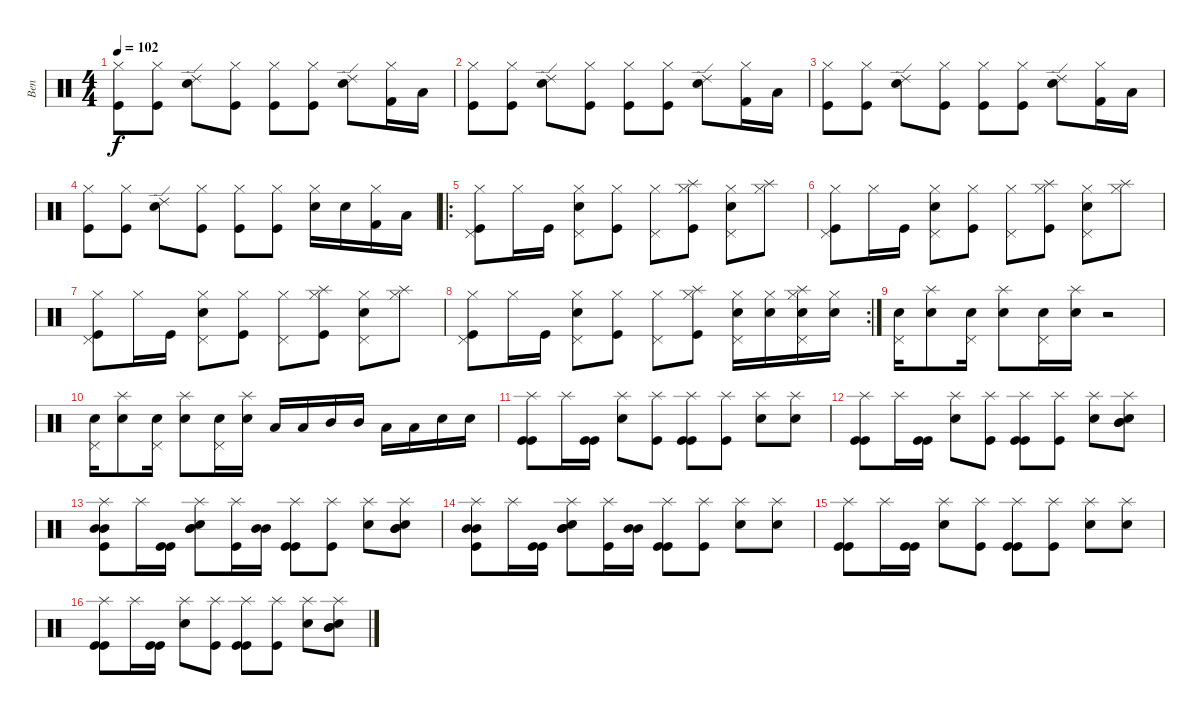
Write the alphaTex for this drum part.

\track ("Ben" "Ben") {instrument percussion}
\staff {score}
\articulation defaults
\ts (4 4)
\tempo 102
\clef neutral
\ks c
("Hi-Hat (closed)" "Kick (hit)").8{dy f} ("Hi-Hat (closed)" "Kick (hit)").8 ("Ride (edge) 2" "Electric Snare (hit)").8 ("Hi-Hat (closed)" "Kick (hit)").8 ("Hi-Hat (closed)" "Kick (hit)").8 ("Hi-Hat (closed)" "Kick (hit)").8 ("Ride (edge) 2" "Electric Snare (hit)").8 ("Hi-Hat (closed)" "Kick (hit) 2").16 "Low Floor Tom (hit)".16 |
("Hi-Hat (closed)" "Kick (hit)").8 ("Hi-Hat (closed)" "Kick (hit)").8 ("Ride (edge) 2" "Electric Snare (hit)").8 ("Hi-Hat (closed)" "Kick (hit)").8 ("Hi-Hat (closed)" "Kick (hit)").8 ("Hi-Hat (closed)" "Kick (hit)").8 ("Ride (edge) 2" "Electric Snare (hit)").8 ("Hi-Hat (closed)" "Kick (hit) 2").16 "Low Floor Tom (hit)".16 |
("Hi-Hat (closed)" "Kick (hit)").8 ("Hi-Hat (closed)" "Kick (hit)").8 ("Ride (edge) 2" "Electric Snare (hit)").8 ("Hi-Hat (closed)" "Kick (hit)").8 ("Hi-Hat (closed)" "Kick (hit)").8 ("Hi-Hat (closed)" "Kick (hit)").8 ("Ride (edge) 2" "Electric Snare (hit)").8 ("Hi-Hat (closed)" "Kick (hit) 2").16 "Low Floor Tom (hit)".16 |
("Hi-Hat (closed)" "Kick (hit)").8 ("Hi-Hat (closed)" "Kick (hit)").8 ("Ride (edge) 2" "Electric Snare (hit)").8 ("Hi-Hat (closed)" "Kick (hit)").8 ("Hi-Hat (closed)" "Kick (hit)").8 ("Hi-Hat (closed)" "Kick (hit)").8 ("Hi-Hat (closed)" "Electric Snare (hit)").16 "Electric Snare (hit)".16 ("Hi-Hat (closed)" "Kick (hit) 2").16 "Low Floor Tom (hit)".16 |
\ro
("Hi-Hat (closed)" "Pedal Hi-Hat (hit)" "Kick (hit)").8 "Hi-Hat (closed)".16 "Kick (hit)".16 ("Hi-Hat (closed)" "Pedal Hi-Hat (hit)" "Electric Snare (hit)").8 ("Hi-Hat (closed)" "Kick (hit)").8 ("Hi-Hat (closed)" "Pedal Hi-Hat (hit)").8 ("Splash (hit)" "Hi-Hat (closed)" "Kick (hit)").8 ("Hi-Hat (closed)" "Pedal Hi-Hat (hit)" "Electric Snare (hit)").8 ("Splash (hit)" "Hi-Hat (closed)").8 |
("Hi-Hat (closed)" "Pedal Hi-Hat (hit)" "Kick (hit)").8 "Hi-Hat (closed)".16 "Kick (hit)".16 ("Hi-Hat (closed)" "Pedal Hi-Hat (hit)" "Electric Snare (hit)").8 ("Hi-Hat (closed)" "Kick (hit)").8 ("Hi-Hat (closed)" "Pedal Hi-Hat (hit)").8 ("Splash (hit)" "Hi-Hat (closed)" "Kick (hit)").8 ("Hi-Hat (closed)" "Pedal Hi-Hat (hit)" "Electric Snare (hit)").8 ("Splash (hit)" "Hi-Hat (closed)").8 |
("Hi-Hat (closed)" "Pedal Hi-Hat (hit)" "Kick (hit)").8 "Hi-Hat (closed)".16 "Kick (hit)".16 ("Hi-Hat (closed)" "Pedal Hi-Hat (hit)" "Electric Snare (hit)").8 ("Hi-Hat (closed)" "Kick (hit)").8 ("Hi-Hat (closed)" "Pedal Hi-Hat (hit)").8 ("Splash (hit)" "Hi-Hat (closed)" "Kick (hit)").8 ("Hi-Hat (closed)" "Pedal Hi-Hat (hit)" "Electric Snare (hit)").8 ("Splash (hit)" "Hi-Hat (closed)").8 |
\rc 2
("Hi-Hat (closed)" "Pedal Hi-Hat (hit)" "Kick (hit)").8 "Hi-Hat (closed)".16 "Kick (hit)".16 ("Hi-Hat (closed)" "Pedal Hi-Hat (hit)" "Electric Snare (hit)").8 ("Hi-Hat (closed)" "Kick (hit)").8 ("Hi-Hat (closed)" "Pedal Hi-Hat (hit)").8 ("Splash (hit)" "Hi-Hat (closed)" "Kick (hit)").8 ("Hi-Hat (closed)" "Pedal Hi-Hat (hit)" "Electric Snare (hit)").16 ("Hi-Hat (closed)" "Electric Snare (hit)").16 ("Splash (hit)" "Hi-Hat (closed)" "Pedal Hi-Hat (hit)" "Electric Snare (hit)").16 ("Hi-Hat (closed)" "Electric Snare (hit)").16 |
("Pedal Hi-Hat (hit)" "Electric Snare (hit)").16 ("Splash (hit)" "Snare (hit) 2").8 ("Pedal Hi-Hat (hit)" "Electric Snare (hit)").16 ("Splash (hit)" "Snare (hit) 2").8 ("Pedal Hi-Hat (hit)" "Electric Snare (hit)").16 ("Splash (hit)" "Snare (hit) 2").16 r.2 |
("Pedal Hi-Hat (hit)" "Electric Snare (hit)").16 ("Splash (hit)" "Snare (hit) 2").8 ("Pedal Hi-Hat (hit)" "Electric Snare (hit)").16 ("Splash (hit)" "Snare (hit) 2").8 ("Pedal Hi-Hat (hit)" "Electric Snare (hit)").16 ("Splash (hit)" "Snare (hit) 2").16 "Low Floor Tom (hit)".16 "Low Floor Tom (hit)".16 "Mid Tom (hit)".16 "Mid Tom (hit)".16 "Low Tom (hit)".16 "Low Tom (hit)".16 "Electric Snare (hit)".16 "Electric Snare (hit)".16 |
("Splash (hit)" "Kick (hit)" "Kick (hit)").8 "Splash (hit)".16 ("Kick (hit)" "Kick (hit)").16 ("Splash (hit)" "Electric Snare (hit)").8 ("Splash (hit)" "Kick (hit)").8 ("Splash (hit)" "Kick (hit)" "Kick (hit)").8 ("Splash (hit)" "Kick (hit)").8 ("Splash (hit)" "Electric Snare (hit)").8 ("Splash (hit)" "Electric Snare (hit)").8 |
("Splash (hit)" "Kick (hit)" "Kick (hit)").8 "Splash (hit)".16 ("Kick (hit)" "Kick (hit)").16 ("Splash (hit)" "Electric Snare (hit)").8 ("Splash (hit)" "Kick (hit)").8 ("Splash (hit)" "Kick (hit)" "Kick (hit)").8 ("Splash (hit)" "Kick (hit)").8 ("Splash (hit)" "Electric Snare (hit)").8 ("Splash (hit)" "Mid Tom (hit)" "Mid Tom (hit)" "Electric Snare (hit)").8 |
("Splash (hit)" "Mid Tom (hit)" "Mid Tom (hit)" "Kick (hit)").8 "Splash (hit)".16 ("Kick (hit)" "Kick (hit)").16 ("Splash (hit)" "Mid Tom (hit)" "Mid Tom (hit)" "Electric Snare (hit)").8 ("Splash (hit)" "Kick (hit)").16 ("Mid Tom (hit)" "Mid Tom (hit)").16 ("Splash (hit)" "Kick (hit)" "Kick (hit)").8 ("Splash (hit)" "Kick (hit)").8 ("Splash (hit)" "Electric Snare (hit)").8 ("Splash (hit)" "Mid Tom (hit)" "Mid Tom (hit)" "Electric Snare (hit)").8 |
("Splash (hit)" "Mid Tom (hit)" "Mid Tom (hit)" "Kick (hit)").8 "Splash (hit)".16 ("Kick (hit)" "Kick (hit)").16 ("Splash (hit)" "Mid Tom (hit)" "Mid Tom (hit)" "Electric Snare (hit)").8 ("Splash (hit)" "Kick (hit)").16 ("Mid Tom (hit)" "Mid Tom (hit)").16 ("Splash (hit)" "Kick (hit)" "Kick (hit)").8 ("Splash (hit)" "Kick (hit)").8 ("Splash (hit)" "Electric Snare (hit)").8 ("Splash (hit)" "Electric Snare (hit)").8 |
("Splash (hit)" "Kick (hit)" "Kick (hit)").8 "Splash (hit)".16 ("Kick (hit)" "Kick (hit)").16 ("Splash (hit)" "Electric Snare (hit)").8 ("Splash (hit)" "Kick (hit)").8 ("Splash (hit)" "Kick (hit)" "Kick (hit)").8 ("Splash (hit)" "Kick (hit)").8 ("Splash (hit)" "Electric Snare (hit)").8 ("Splash (hit)" "Electric Snare (hit)").8 |
("Splash (hit)" "Kick (hit)" "Kick (hit)").8 "Splash (hit)".16 ("Kick (hit)" "Kick (hit)").16 ("Splash (hit)" "Electric Snare (hit)").8 ("Splash (hit)" "Kick (hit)").8 ("Splash (hit)" "Kick (hit)" "Kick (hit)").8 ("Splash (hit)" "Kick (hit)").8 ("Splash (hit)" "Electric Snare (hit)").8 ("Splash (hit)" "Mid Tom (hit)" "Mid Tom (hit)" "Electric Snare (hit)").8
